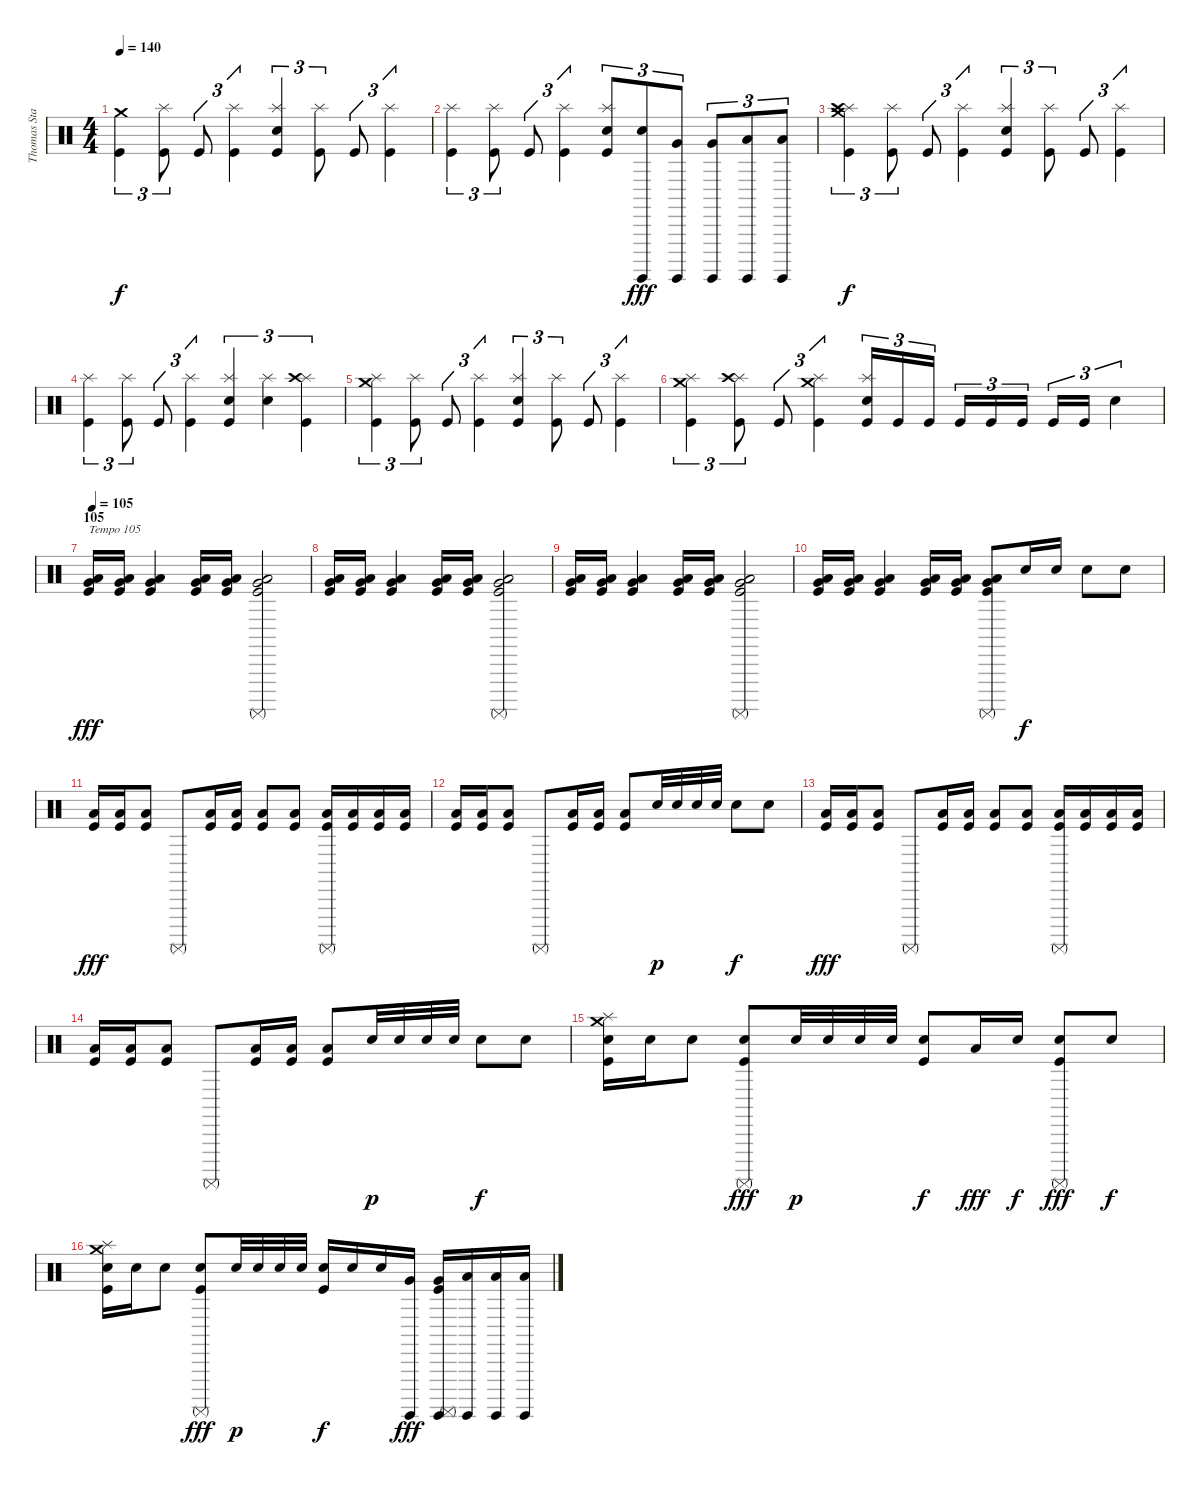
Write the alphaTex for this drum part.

\track ("Thomas Stauch" "Thomas Sta") {instrument percussion}
\staff {score}
\articulation defaults
\ts (4 4)
\tempo 140
\clef neutral
\ks c
("Crash medium (hit)" "Kick (hit)").4{tu (3 2) dy f} ("Splash (hit)" "Kick (hit)").8{tu (3 2)} "Kick (hit)".8{tu (3 2)} ("Splash (hit)" "Kick (hit)").4{tu (3 2)} ("Splash (hit)" "Electric Snare (hit)" "Kick (hit)").4{tu (3 2)} ("Splash (hit)" "Kick (hit)").8{tu (3 2)} "Kick (hit)".8{tu (3 2)} ("Splash (hit)" "Kick (hit)").4{tu (3 2)} |
("Splash (hit)" "Kick (hit)").4{tu (3 2)} ("Splash (hit)" "Kick (hit)").8{tu (3 2)} "Kick (hit)".8{tu (3 2)} ("Splash (hit)" "Kick (hit)").4{tu (3 2)} ("Splash (hit)" "Electric Snare (hit)" "Kick (hit)").8{tu (3 2)} ("Surdo (hit)" "Electric Snare (hit)").8{tu (3 2) dy fff} ("Surdo (hit)" "Very Low Tom (hit)").8{tu (3 2)} ("Surdo (hit)" "Very Low Tom (hit)").8{tu (3 2)} ("Surdo (hit)" "Low Floor Tom (hit)").8{tu (3 2)} ("Surdo (hit)" "Low Floor Tom (hit)").8{tu (3 2)} |
("Crash medium (hit)" "Splash (hit)" "Crash high (hit)" "Kick (hit)").4{tu (3 2) dy f} ("Splash (hit)" "Kick (hit)").8{tu (3 2)} "Kick (hit)".8{tu (3 2)} ("Splash (hit)" "Kick (hit)").4{tu (3 2)} ("Splash (hit)" "Electric Snare (hit)" "Kick (hit)").4{tu (3 2)} ("Splash (hit)" "Kick (hit)").8{tu (3 2)} "Kick (hit)".8{tu (3 2)} ("Splash (hit)" "Kick (hit)").4{tu (3 2)} |
("Splash (hit)" "Kick (hit)").4{tu (3 2)} ("Splash (hit)" "Kick (hit)").8{tu (3 2)} "Kick (hit)".8{tu (3 2)} ("Splash (hit)" "Kick (hit)").4{tu (3 2)} ("Splash (hit)" "Electric Snare (hit)" "Kick (hit)").4{tu (3 2)} ("Splash (hit)" "Electric Snare (hit)").4{tu (3 2)} ("Splash (hit)" "Crash high (hit)" "Kick (hit)").4{tu (3 2)} |
("Crash medium (hit)" "Splash (hit)" "Kick (hit)").4{tu (3 2)} ("Splash (hit)" "Kick (hit)").8{tu (3 2)} "Kick (hit)".8{tu (3 2)} ("Splash (hit)" "Kick (hit)").4{tu (3 2)} ("Splash (hit)" "Electric Snare (hit)" "Kick (hit)").4{tu (3 2)} ("Splash (hit)" "Kick (hit)").8{tu (3 2)} "Kick (hit)".8{tu (3 2)} ("Splash (hit)" "Kick (hit)").4{tu (3 2)} |
("Crash medium (hit)" "Splash (hit)" "Kick (hit)").4{tu (3 2)} ("Splash (hit)" "Crash high (hit)" "Kick (hit)").8{tu (3 2)} "Kick (hit)".8{tu (3 2)} ("Crash medium (hit)" "Splash (hit)" "Kick (hit)").4{tu (3 2)} ("Splash (hit)" "Electric Snare (hit)" "Kick (hit)").16{tu (3 2)} "Kick (hit)".16{tu (3 2)} "Kick (hit)".16{tu (3 2)} "Kick (hit)".16{tu (3 2)} "Kick (hit)".16{tu (3 2)} "Kick (hit)".16{tu (3 2)} "Kick (hit)".16{tu (3 2)} "Kick (hit)".16{tu (3 2)} "Electric Snare (hit)".4{tu (3 2)} |
\section ("" "105")
\tempo 105
("Very Low Tom (hit)" "Low Floor Tom (hit)" "Kick (hit)").16{txt "Tempo 105" dy fff} ("Very Low Tom (hit)" "Low Floor Tom (hit)" "Kick (hit)").16 ("Very Low Tom (hit)" "Low Floor Tom (hit)" "Kick (hit)").4 ("Very Low Tom (hit)" "Low Floor Tom (hit)" "Kick (hit)").16 ("Very Low Tom (hit)" "Low Floor Tom (hit)" "Kick (hit)").16 ("Surdo (mute)" "Very Low Tom (hit)" "Low Floor Tom (hit)" "Kick (hit)").2 |
("Very Low Tom (hit)" "Low Floor Tom (hit)" "Kick (hit)").16 ("Very Low Tom (hit)" "Low Floor Tom (hit)" "Kick (hit)").16 ("Very Low Tom (hit)" "Low Floor Tom (hit)" "Kick (hit)").4 ("Very Low Tom (hit)" "Low Floor Tom (hit)" "Kick (hit)").16 ("Very Low Tom (hit)" "Low Floor Tom (hit)" "Kick (hit)").16 ("Surdo (mute)" "Very Low Tom (hit)" "Low Floor Tom (hit)" "Kick (hit)").2 |
("Very Low Tom (hit)" "Low Floor Tom (hit)" "Kick (hit)").16 ("Very Low Tom (hit)" "Low Floor Tom (hit)" "Kick (hit)").16 ("Very Low Tom (hit)" "Low Floor Tom (hit)" "Kick (hit)").4 ("Very Low Tom (hit)" "Low Floor Tom (hit)" "Kick (hit)").16 ("Very Low Tom (hit)" "Low Floor Tom (hit)" "Kick (hit)").16 ("Surdo (mute)" "Very Low Tom (hit)" "Low Floor Tom (hit)" "Kick (hit)").2 |
("Very Low Tom (hit)" "Low Floor Tom (hit)" "Kick (hit)").16 ("Very Low Tom (hit)" "Low Floor Tom (hit)" "Kick (hit)").16 ("Very Low Tom (hit)" "Low Floor Tom (hit)" "Kick (hit)").4 ("Very Low Tom (hit)" "Low Floor Tom (hit)" "Kick (hit)").16 ("Very Low Tom (hit)" "Low Floor Tom (hit)" "Kick (hit)").16 ("Surdo (mute)" "Very Low Tom (hit)" "Low Floor Tom (hit)" "Kick (hit)").8 "Electric Snare (hit)".16{dy f} "Electric Snare (hit)".16 "Electric Snare (hit)".8 "Electric Snare (hit)".8 |
("Low Floor Tom (hit)" "Kick (hit)").16{dy fff} ("Low Floor Tom (hit)" "Kick (hit)").16 ("Low Floor Tom (hit)" "Kick (hit)").8 "Surdo (mute)".8 ("Low Floor Tom (hit)" "Kick (hit)").16 ("Low Floor Tom (hit)" "Kick (hit)").16 ("Low Floor Tom (hit)" "Kick (hit)").8 ("Low Floor Tom (hit)" "Kick (hit)").8 ("Surdo (mute)" "Low Floor Tom (hit)" "Kick (hit)").16 ("Low Floor Tom (hit)" "Kick (hit)").16 ("Low Floor Tom (hit)" "Kick (hit)").16 ("Low Floor Tom (hit)" "Kick (hit)").16 |
("Low Floor Tom (hit)" "Kick (hit)").16 ("Low Floor Tom (hit)" "Kick (hit)").16 ("Low Floor Tom (hit)" "Kick (hit)").8 "Surdo (mute)".8 ("Low Floor Tom (hit)" "Kick (hit)").16 ("Low Floor Tom (hit)" "Kick (hit)").16 ("Low Floor Tom (hit)" "Kick (hit)").8 "Electric Snare (hit)".32{dy p} "Electric Snare (hit)".32 "Electric Snare (hit)".32 "Electric Snare (hit)".32 "Electric Snare (hit)".8{dy f} "Electric Snare (hit)".8 |
("Low Floor Tom (hit)" "Kick (hit)").16{dy fff} ("Low Floor Tom (hit)" "Kick (hit)").16 ("Low Floor Tom (hit)" "Kick (hit)").8 "Surdo (mute)".8 ("Low Floor Tom (hit)" "Kick (hit)").16 ("Low Floor Tom (hit)" "Kick (hit)").16 ("Low Floor Tom (hit)" "Kick (hit)").8 ("Low Floor Tom (hit)" "Kick (hit)").8 ("Surdo (mute)" "Low Floor Tom (hit)" "Kick (hit)").16 ("Low Floor Tom (hit)" "Kick (hit)").16 ("Low Floor Tom (hit)" "Kick (hit)").16 ("Low Floor Tom (hit)" "Kick (hit)").16 |
("Low Floor Tom (hit)" "Kick (hit)").16 ("Low Floor Tom (hit)" "Kick (hit)").16 ("Low Floor Tom (hit)" "Kick (hit)").8 "Surdo (mute)".8 ("Low Floor Tom (hit)" "Kick (hit)").16 ("Low Floor Tom (hit)" "Kick (hit)").16 ("Low Floor Tom (hit)" "Kick (hit)").8 "Electric Snare (hit)".32{dy p} "Electric Snare (hit)".32 "Electric Snare (hit)".32 "Electric Snare (hit)".32 "Electric Snare (hit)".8{dy f} "Electric Snare (hit)".8 |
("Crash medium (hit)" "Splash (hit)" "Electric Snare (hit)" "Kick (hit)").16 "Electric Snare (hit)".16 "Electric Snare (hit)".8 ("Surdo (mute)" "Electric Snare (hit)" "Kick (hit)").8{dy fff} "Electric Snare (hit)".32{dy p} "Electric Snare (hit)".32 "Electric Snare (hit)".32 "Electric Snare (hit)".32 ("Electric Snare (hit)" "Kick (hit)").8{dy f} "Low Floor Tom (hit)".16{dy fff} "Electric Snare (hit)".16{dy f} ("Surdo (mute)" "Electric Snare (hit)" "Kick (hit)").8{dy fff} "Electric Snare (hit)".8{dy f} |
("Crash medium (hit)" "Splash (hit)" "Electric Snare (hit)" "Kick (hit)").16 "Electric Snare (hit)".16 "Electric Snare (hit)".8 ("Surdo (mute)" "Electric Snare (hit)" "Kick (hit)").8{dy fff} "Electric Snare (hit)".32{dy p} "Electric Snare (hit)".32 "Electric Snare (hit)".32 "Electric Snare (hit)".32 ("Electric Snare (hit)" "Kick (hit)").16{dy f} "Electric Snare (hit)".16 "Electric Snare (hit)".16 ("Surdo (hit)" "Very Low Tom (hit)").16{dy fff} ("Surdo (mute)" "Surdo (hit)" "Very Low Tom (hit)" "Kick (hit)").16 ("Surdo (hit)" "Low Floor Tom (hit)").16 ("Surdo (hit)" "Low Floor Tom (hit)").16 ("Surdo (hit)" "Low Floor Tom (hit)").16
